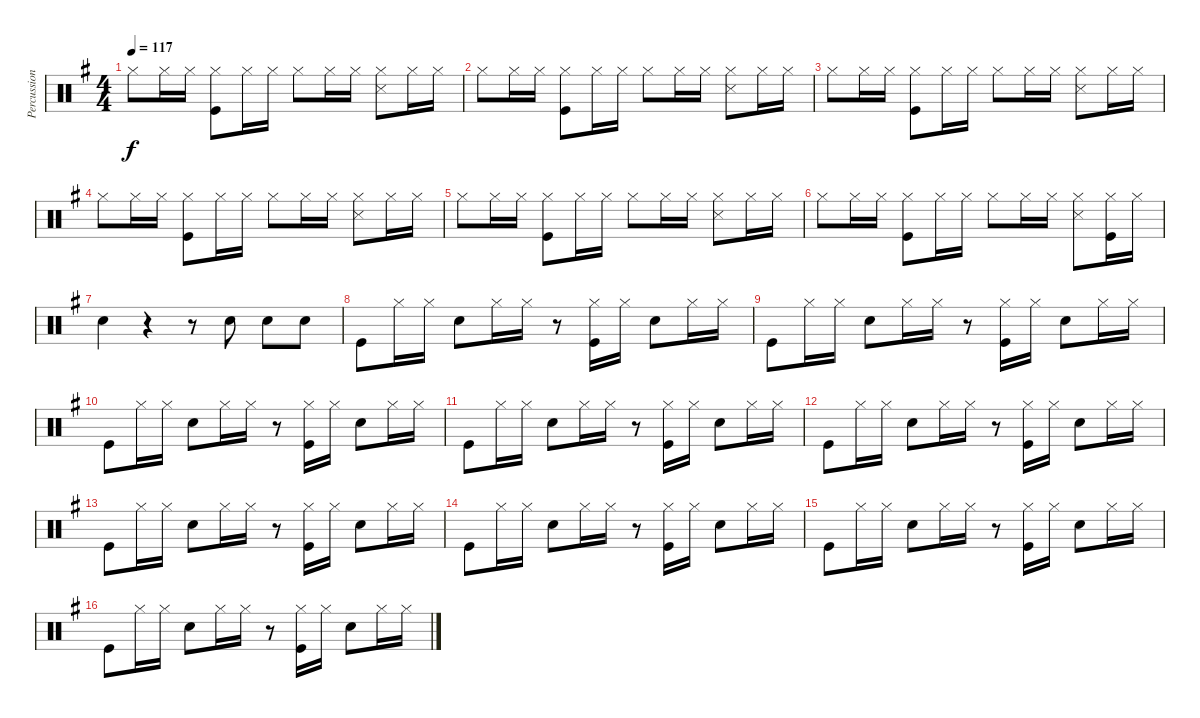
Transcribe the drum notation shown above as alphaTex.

\track ("Percussion" "Percussion") {instrument percussion}
\staff {score}
\articulation defaults
\ts (4 4)
\tempo 117
\clef neutral
\ks g "Hi-Hat (closed)".8{dy f} "Hi-Hat (closed)".16 "Hi-Hat (closed)".16
("Hi-Hat (closed)" "Kick (hit)").8 "Hi-Hat (closed)".16 "Hi-Hat (closed)".16 "Hi-Hat (closed)".8 "Hi-Hat (closed)".16 "Hi-Hat (closed)".16 ("Hi-Hat (closed)" "Snare (side stick) 3").8 "Hi-Hat (closed)".16 "Hi-Hat (closed)".16 |
"Hi-Hat (closed)".8 "Hi-Hat (closed)".16 "Hi-Hat (closed)".16 ("Hi-Hat (closed)" "Kick (hit)").8 "Hi-Hat (closed)".16 "Hi-Hat (closed)".16 "Hi-Hat (closed)".8 "Hi-Hat (closed)".16 "Hi-Hat (closed)".16 ("Hi-Hat (closed)" "Snare (side stick) 3").8 "Hi-Hat (closed)".16 "Hi-Hat (closed)".16 |
"Hi-Hat (closed)".8 "Hi-Hat (closed)".16 "Hi-Hat (closed)".16 ("Hi-Hat (closed)" "Kick (hit)").8 "Hi-Hat (closed)".16 "Hi-Hat (closed)".16 "Hi-Hat (closed)".8 "Hi-Hat (closed)".16 "Hi-Hat (closed)".16 ("Hi-Hat (closed)" "Snare (side stick) 3").8 "Hi-Hat (closed)".16 "Hi-Hat (closed)".16 |
"Hi-Hat (closed)".8 "Hi-Hat (closed)".16 "Hi-Hat (closed)".16 ("Hi-Hat (closed)" "Kick (hit)").8 "Hi-Hat (closed)".16 "Hi-Hat (closed)".16 "Hi-Hat (closed)".8 "Hi-Hat (closed)".16 "Hi-Hat (closed)".16 ("Hi-Hat (closed)" "Snare (side stick) 3").8 "Hi-Hat (closed)".16 "Hi-Hat (closed)".16 |
"Hi-Hat (closed)".8 "Hi-Hat (closed)".16 "Hi-Hat (closed)".16 ("Hi-Hat (closed)" "Kick (hit)").8 "Hi-Hat (closed)".16 "Hi-Hat (closed)".16 "Hi-Hat (closed)".8 "Hi-Hat (closed)".16 "Hi-Hat (closed)".16 ("Hi-Hat (closed)" "Snare (side stick) 3").8 "Hi-Hat (closed)".16 "Hi-Hat (closed)".16 |
"Hi-Hat (closed)".8 "Hi-Hat (closed)".16 "Hi-Hat (closed)".16 ("Hi-Hat (closed)" "Kick (hit)").8 "Hi-Hat (closed)".16 "Hi-Hat (closed)".16 "Hi-Hat (closed)".8 "Hi-Hat (closed)".16 "Hi-Hat (closed)".16 ("Hi-Hat (closed)" "Snare (side stick) 3").8 ("Hi-Hat (closed)" "Kick (hit)").16 "Hi-Hat (closed)".16 |
"Snare (hit) 2".4 r.4 r.8 "Snare (hit) 2".8 "Snare (hit) 2".8 "Snare (hit) 2".8 |
"Kick (hit)".8 "Hi-Hat (closed)".16 "Hi-Hat (closed)".16 "Snare (hit) 2".8 "Hi-Hat (closed)".16 "Hi-Hat (closed)".16 r.8 ("Hi-Hat (closed)" "Kick (hit)").16 "Hi-Hat (closed)".16 "Snare (hit) 2".8 "Hi-Hat (closed)".16 "Hi-Hat (closed)".16 |
"Kick (hit)".8 "Hi-Hat (closed)".16 "Hi-Hat (closed)".16 "Snare (hit) 2".8 "Hi-Hat (closed)".16 "Hi-Hat (closed)".16 r.8 ("Hi-Hat (closed)" "Kick (hit)").16 "Hi-Hat (closed)".16 "Snare (hit) 2".8 "Hi-Hat (closed)".16 "Hi-Hat (closed)".16 |
"Kick (hit)".8 "Hi-Hat (closed)".16 "Hi-Hat (closed)".16 "Snare (hit) 2".8 "Hi-Hat (closed)".16 "Hi-Hat (closed)".16 r.8 ("Hi-Hat (closed)" "Kick (hit)").16 "Hi-Hat (closed)".16 "Snare (hit) 2".8 "Hi-Hat (closed)".16 "Hi-Hat (closed)".16 |
"Kick (hit)".8 "Hi-Hat (closed)".16 "Hi-Hat (closed)".16 "Snare (hit) 2".8 "Hi-Hat (closed)".16 "Hi-Hat (closed)".16 r.8 ("Hi-Hat (closed)" "Kick (hit)").16 "Hi-Hat (closed)".16 "Snare (hit) 2".8 "Hi-Hat (closed)".16 "Hi-Hat (closed)".16 |
"Kick (hit)".8 "Hi-Hat (closed)".16 "Hi-Hat (closed)".16 "Snare (hit) 2".8 "Hi-Hat (closed)".16 "Hi-Hat (closed)".16 r.8 ("Hi-Hat (closed)" "Kick (hit)").16 "Hi-Hat (closed)".16 "Snare (hit) 2".8 "Hi-Hat (closed)".16 "Hi-Hat (closed)".16 |
"Kick (hit)".8 "Hi-Hat (closed)".16 "Hi-Hat (closed)".16 "Snare (hit) 2".8 "Hi-Hat (closed)".16 "Hi-Hat (closed)".16 r.8 ("Hi-Hat (closed)" "Kick (hit)").16 "Hi-Hat (closed)".16 "Snare (hit) 2".8 "Hi-Hat (closed)".16 "Hi-Hat (closed)".16 |
"Kick (hit)".8 "Hi-Hat (closed)".16 "Hi-Hat (closed)".16 "Snare (hit) 2".8 "Hi-Hat (closed)".16 "Hi-Hat (closed)".16 r.8 ("Hi-Hat (closed)" "Kick (hit)").16 "Hi-Hat (closed)".16 "Snare (hit) 2".8 "Hi-Hat (closed)".16 "Hi-Hat (closed)".16 |
"Kick (hit)".8 "Hi-Hat (closed)".16 "Hi-Hat (closed)".16 "Snare (hit) 2".8 "Hi-Hat (closed)".16 "Hi-Hat (closed)".16 r.8 ("Hi-Hat (closed)" "Kick (hit)").16 "Hi-Hat (closed)".16 "Snare (hit) 2".8 "Hi-Hat (closed)".16 "Hi-Hat (closed)".16 |
"Kick (hit)".8 "Hi-Hat (closed)".16 "Hi-Hat (closed)".16 "Snare (hit) 2".8 "Hi-Hat (closed)".16 "Hi-Hat (closed)".16 r.8 ("Hi-Hat (closed)" "Kick (hit)").16 "Hi-Hat (closed)".16 "Snare (hit) 2".8 "Hi-Hat (closed)".16 "Hi-Hat (closed)".16
